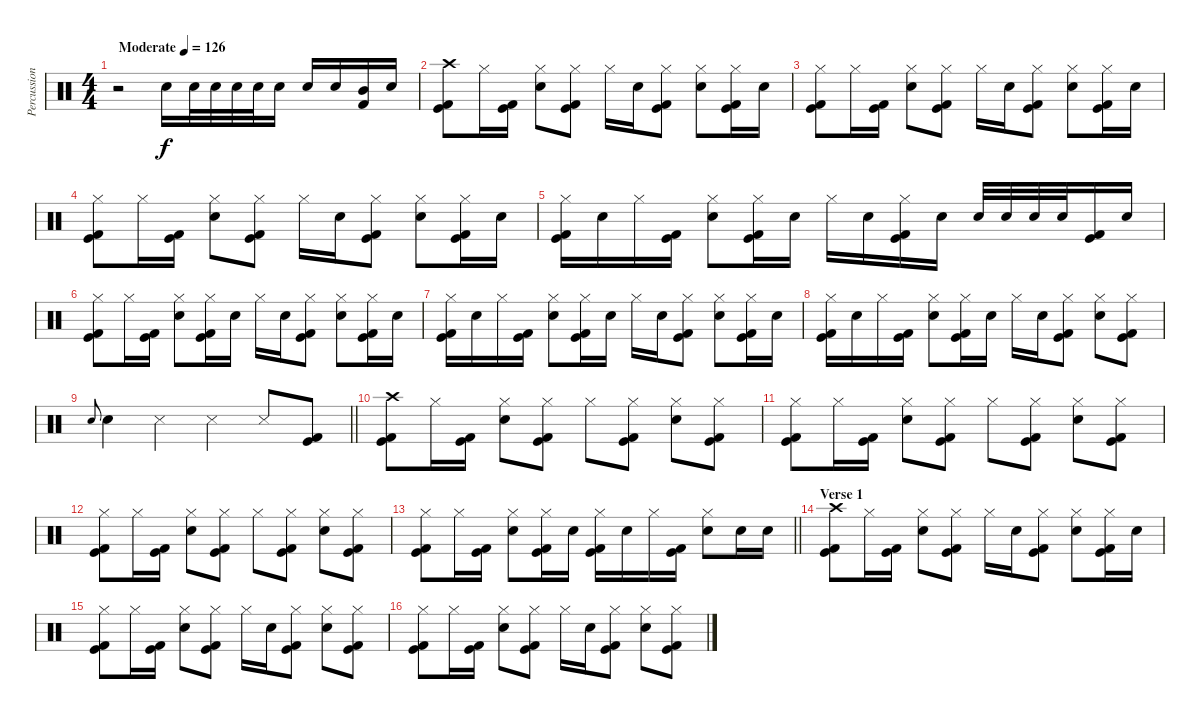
\track ("Percussion" "Percussion") {instrument percussion}
\staff {score}
\articulation defaults
\ts (4 4)
\tempo (126 "Moderate")
\clef neutral
\ks c
r.2{dy f} "Electric Snare (hit)".16 "Electric Snare (hit)".32 "Electric Snare (hit)".32 "Electric Snare (hit)".32 "Electric Snare (hit)".32 "Electric Snare (hit)".16 "Electric Snare (hit)".16 "Electric Snare (hit)".16 ("Mid Tom (hit)" "Kick (hit) 2").16 "Electric Snare (hit)".16 |
("Crash high (hit)" "Kick (hit)" "Kick (hit) 2").8 "Hi-Hat (closed)".16 ("Kick (hit)" "Kick (hit) 2").16 ("Hi-Hat (closed)" "Electric Snare (hit)").8 ("Hi-Hat (closed)" "Kick (hit)" "Kick (hit) 2").8 "Hi-Hat (closed)".16 "Electric Snare (hit)".16 ("Hi-Hat (closed)" "Kick (hit)" "Kick (hit) 2").8 ("Hi-Hat (closed)" "Electric Snare (hit)").8 ("Hi-Hat (closed)" "Kick (hit)" "Kick (hit) 2").16 "Electric Snare (hit)".16 |
("Hi-Hat (closed)" "Kick (hit)" "Kick (hit) 2").8 "Hi-Hat (closed)".16 ("Kick (hit)" "Kick (hit) 2").16 ("Hi-Hat (closed)" "Electric Snare (hit)").8 ("Hi-Hat (closed)" "Kick (hit)" "Kick (hit) 2").8 "Hi-Hat (closed)".16 "Electric Snare (hit)".16 ("Hi-Hat (closed)" "Kick (hit)" "Kick (hit) 2").8 ("Hi-Hat (closed)" "Electric Snare (hit)").8 ("Hi-Hat (closed)" "Kick (hit)" "Kick (hit) 2").16 "Electric Snare (hit)".16 |
("Hi-Hat (closed)" "Kick (hit)" "Kick (hit) 2").8 "Hi-Hat (closed)".16 ("Kick (hit)" "Kick (hit) 2").16 ("Hi-Hat (closed)" "Electric Snare (hit)").8 ("Hi-Hat (closed)" "Kick (hit)" "Kick (hit) 2").8 "Hi-Hat (closed)".16 "Electric Snare (hit)".16 ("Hi-Hat (closed)" "Kick (hit)" "Kick (hit) 2").8 ("Hi-Hat (closed)" "Electric Snare (hit)").8 ("Hi-Hat (closed)" "Kick (hit)" "Kick (hit) 2").16 "Electric Snare (hit)".16 |
("Hi-Hat (closed)" "Kick (hit)" "Kick (hit) 2").16 "Electric Snare (hit)".16 "Hi-Hat (closed)".16 ("Kick (hit)" "Kick (hit) 2").16 ("Hi-Hat (closed)" "Electric Snare (hit)").8 ("Hi-Hat (closed)" "Kick (hit)" "Kick (hit) 2").16 "Electric Snare (hit)".16 "Hi-Hat (closed)".16 "Electric Snare (hit)".16 ("Hi-Hat (closed)" "Kick (hit)" "Kick (hit) 2").16 "Electric Snare (hit)".16 "Electric Snare (hit)".32 "Electric Snare (hit)".32 "Electric Snare (hit)".32 "Electric Snare (hit)".32 ("Kick (hit)" "Kick (hit) 2").16 "Electric Snare (hit)".16 |
("Hi-Hat (closed)" "Kick (hit)" "Kick (hit) 2").8 "Hi-Hat (closed)".16 ("Kick (hit)" "Kick (hit) 2").16 ("Hi-Hat (closed)" "Electric Snare (hit)").8 ("Hi-Hat (closed)" "Kick (hit)" "Kick (hit) 2").16 "Electric Snare (hit)".16 "Hi-Hat (closed)".16 "Electric Snare (hit)".16 ("Hi-Hat (closed)" "Kick (hit)" "Kick (hit) 2").8 ("Hi-Hat (closed)" "Electric Snare (hit)").8 ("Hi-Hat (closed)" "Kick (hit)" "Kick (hit) 2").16 "Electric Snare (hit)".16 |
("Hi-Hat (closed)" "Kick (hit)" "Kick (hit) 2").16 "Electric Snare (hit)".16 "Hi-Hat (closed)".16 ("Kick (hit)" "Kick (hit) 2").16 ("Hi-Hat (closed)" "Electric Snare (hit)").8 ("Hi-Hat (closed)" "Kick (hit)" "Kick (hit) 2").16 "Electric Snare (hit)".16 "Hi-Hat (closed)".16 "Electric Snare (hit)".16 ("Hi-Hat (closed)" "Kick (hit)" "Kick (hit) 2").8 ("Hi-Hat (closed)" "Electric Snare (hit)").8 ("Hi-Hat (closed)" "Kick (hit)" "Kick (hit) 2").16 "Electric Snare (hit)".16 |
("Hi-Hat (closed)" "Kick (hit)" "Kick (hit) 2").16 "Electric Snare (hit)".16 "Hi-Hat (closed)".16 ("Kick (hit)" "Kick (hit) 2").16 ("Hi-Hat (closed)" "Electric Snare (hit)").8 ("Hi-Hat (closed)" "Kick (hit)" "Kick (hit) 2").16 "Electric Snare (hit)".16 "Hi-Hat (closed)".16 "Electric Snare (hit)".16 ("Hi-Hat (closed)" "Kick (hit)" "Kick (hit) 2").8 ("Hi-Hat (closed)" "Electric Snare (hit)").8 ("Hi-Hat (closed)" "Kick (hit)" "Kick (hit) 2").8 |
\barLineRight lightlight "Electric Snare (hit)".8{gr onbeat} "Electric Snare (hit)".4 "Snare (side stick) 3".4 "Snare (side stick) 3".4 "Snare (side stick) 3".8
("Kick (hit)" "Kick (hit) 2").8 |
\section ("" "")
("Crash high (hit)" "Kick (hit)" "Kick (hit) 2").8 "Hi-Hat (closed)".16 ("Kick (hit)" "Kick (hit) 2").16 ("Hi-Hat (closed)" "Electric Snare (hit)").8 ("Hi-Hat (closed)" "Kick (hit)" "Kick (hit) 2").8 "Hi-Hat (closed)".8 ("Hi-Hat (closed)" "Kick (hit)" "Kick (hit) 2").8 ("Hi-Hat (closed)" "Electric Snare (hit)").8 ("Hi-Hat (closed)" "Kick (hit)" "Kick (hit) 2").8 |
("Hi-Hat (closed)" "Kick (hit)" "Kick (hit) 2").8 "Hi-Hat (closed)".16 ("Kick (hit)" "Kick (hit) 2").16 ("Hi-Hat (closed)" "Electric Snare (hit)").8 ("Hi-Hat (closed)" "Kick (hit)" "Kick (hit) 2").8 "Hi-Hat (closed)".8 ("Hi-Hat (closed)" "Kick (hit)" "Kick (hit) 2").8 ("Hi-Hat (closed)" "Electric Snare (hit)").8 ("Hi-Hat (closed)" "Kick (hit)" "Kick (hit) 2").8 |
("Hi-Hat (closed)" "Kick (hit)" "Kick (hit) 2").8 "Hi-Hat (closed)".16 ("Kick (hit)" "Kick (hit) 2").16 ("Hi-Hat (closed)" "Electric Snare (hit)").8 ("Hi-Hat (closed)" "Kick (hit)" "Kick (hit) 2").8 "Hi-Hat (closed)".8 ("Hi-Hat (closed)" "Kick (hit)" "Kick (hit) 2").8 ("Hi-Hat (closed)" "Electric Snare (hit)").8 ("Hi-Hat (closed)" "Kick (hit)" "Kick (hit) 2").8 |
\barLineRight lightlight
("Hi-Hat (closed)" "Kick (hit)" "Kick (hit) 2").8 "Hi-Hat (closed)".16 ("Kick (hit)" "Kick (hit) 2").16 ("Hi-Hat (closed)" "Electric Snare (hit)").8 ("Hi-Hat (closed)" "Kick (hit)" "Kick (hit) 2").16 "Electric Snare (hit)".16 ("Hi-Hat (closed)" "Kick (hit)" "Kick (hit) 2").16 "Electric Snare (hit)".16 "Hi-Hat (closed)".16 ("Kick (hit)" "Kick (hit) 2").16 ("Hi-Hat (closed)" "Electric Snare (hit)").8 "Electric Snare (hit)".16 "Electric Snare (hit)".16 |
\section ("" "Verse 1")
("Crash high (hit)" "Kick (hit)" "Kick (hit) 2").8 "Hi-Hat (closed)".16 ("Kick (hit)" "Kick (hit) 2").16 ("Hi-Hat (closed)" "Electric Snare (hit)").8 ("Hi-Hat (closed)" "Kick (hit)" "Kick (hit) 2").8 "Hi-Hat (closed)".16 "Electric Snare (hit)".16 ("Hi-Hat (closed)" "Kick (hit)" "Kick (hit) 2").8 ("Hi-Hat (closed)" "Electric Snare (hit)").8 ("Hi-Hat (closed)" "Kick (hit)" "Kick (hit) 2").16 "Electric Snare (hit)".16 |
("Hi-Hat (closed)" "Kick (hit)" "Kick (hit) 2").8 "Hi-Hat (closed)".16 ("Kick (hit)" "Kick (hit) 2").16 ("Hi-Hat (closed)" "Electric Snare (hit)").8 ("Hi-Hat (closed)" "Kick (hit)" "Kick (hit) 2").8 "Hi-Hat (closed)".16 "Electric Snare (hit)".16 ("Hi-Hat (closed)" "Kick (hit)" "Kick (hit) 2").8 ("Hi-Hat (closed)" "Electric Snare (hit)").8 ("Hi-Hat (closed)" "Kick (hit)" "Kick (hit) 2").8 |
("Hi-Hat (closed)" "Kick (hit)" "Kick (hit) 2").8 "Hi-Hat (closed)".16 ("Kick (hit)" "Kick (hit) 2").16 ("Hi-Hat (closed)" "Electric Snare (hit)").8 ("Hi-Hat (closed)" "Kick (hit)" "Kick (hit) 2").8 "Hi-Hat (closed)".16 "Electric Snare (hit)".16 ("Hi-Hat (closed)" "Kick (hit)" "Kick (hit) 2").8 ("Hi-Hat (closed)" "Electric Snare (hit)").8 ("Hi-Hat (closed)" "Kick (hit)" "Kick (hit) 2").8
